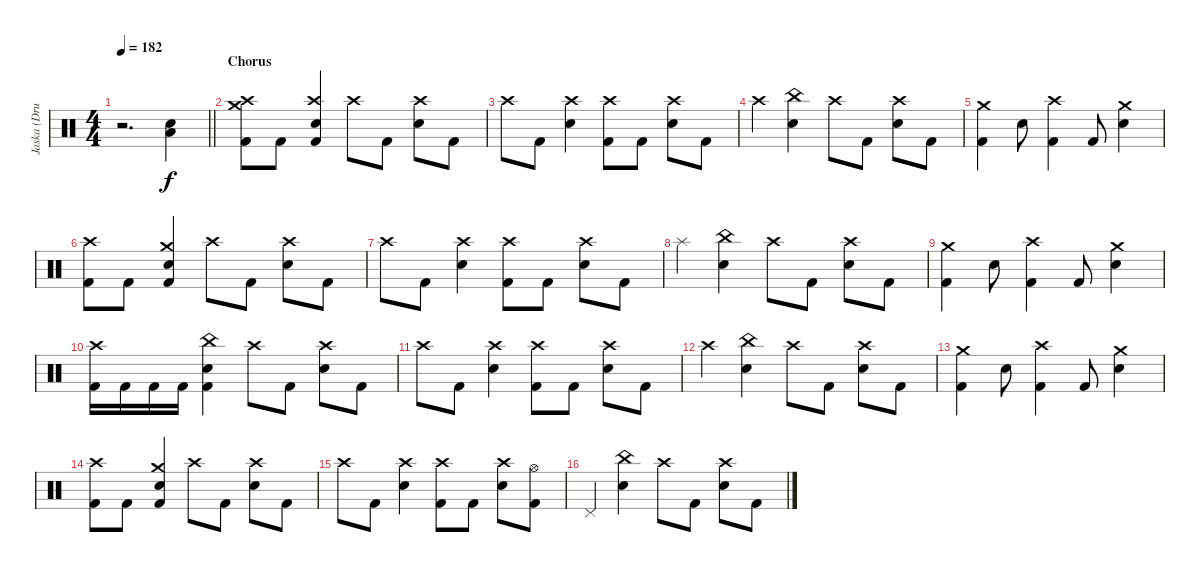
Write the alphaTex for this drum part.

\track ("Jaska (Drums)" "Jaska (Dru") {instrument percussion}
\staff {score}
\articulation defaults
\ts (4 4)
\tempo 182
\clef neutral
\barLineRight lightlight
\ks c
r.2{d dy f volume 0} ("Low Floor Tom (hit)" "Electric Snare (hit)").4{volume 16} |
\section ("" "Chorus")
("Crash medium (hit)" "Crash high (hit)" "Kick (hit) 2").8 "Kick (hit) 2".8 ("Crash high (hit)" "Electric Snare (hit)" "Kick (hit) 2").4 "Crash high (hit)".8 "Kick (hit) 2".8 ("Crash high (hit)" "Electric Snare (hit)").8 "Kick (hit) 2".8 |
"Crash high (hit)".8 "Kick (hit) 2".8 ("Crash high (hit)" "Electric Snare (hit)").4 ("Crash high (hit)" "Kick (hit) 2").8 "Kick (hit) 2".8 ("Crash high (hit)" "Electric Snare (hit)").8 "Kick (hit) 2".8 |
"Crash high (hit)".4 ("China (hit)" "Electric Snare (hit)").4 "Crash high (hit)".8 "Kick (hit) 2".8 ("Crash high (hit)" "Electric Snare (hit)").8 "Kick (hit) 2".8 |
("Crash medium (hit)" "Kick (hit) 2").4 "Electric Snare (hit)".8 ("Crash high (hit)" "Kick (hit) 2").4 "Kick (hit) 2".8 ("Crash medium (hit)" "Electric Snare (hit)").4 |
("Crash high (hit)" "Kick (hit) 2").8 "Kick (hit) 2".8 ("Crash medium (hit)" "Electric Snare (hit)" "Kick (hit) 2").4 "Crash high (hit)".8 "Kick (hit) 2".8 ("Crash high (hit)" "Electric Snare (hit)").8 "Kick (hit) 2".8 |
"Crash high (hit)".8 "Kick (hit) 2".8 ("Crash high (hit)" "Electric Snare (hit)").4 ("Crash high (hit)" "Kick (hit) 2").8 "Kick (hit) 2".8 ("Crash high (hit)" "Electric Snare (hit)").8 "Kick (hit) 2".8 |
"Splash (hit)".4 ("China (hit)" "Electric Snare (hit)").4 "Crash high (hit)".8 "Kick (hit) 2".8 ("Crash high (hit)" "Electric Snare (hit)").8 "Kick (hit) 2".8 |
("Crash medium (hit)" "Kick (hit) 2").4 "Electric Snare (hit)".8 ("Crash high (hit)" "Kick (hit) 2").4 "Kick (hit) 2".8 ("Crash medium (hit)" "Electric Snare (hit)").4 |
("Crash high (hit)" "Kick (hit) 2").16 "Kick (hit) 2".16 "Kick (hit) 2".16 "Kick (hit) 2".16 ("China (hit)" "Electric Snare (hit)" "Kick (hit) 2").4 "Crash high (hit)".8 "Kick (hit) 2".8 ("Crash high (hit)" "Electric Snare (hit)").8 "Kick (hit) 2".8 |
"Crash high (hit)".8 "Kick (hit) 2".8 ("Crash high (hit)" "Electric Snare (hit)").4 ("Crash high (hit)" "Kick (hit) 2").8 "Kick (hit) 2".8 ("Crash high (hit)" "Electric Snare (hit)").8 "Kick (hit) 2".8 |
"Crash high (hit)".4 ("China (hit)" "Electric Snare (hit)").4 "Crash high (hit)".8 "Kick (hit) 2".8 ("Crash high (hit)" "Electric Snare (hit)").8 "Kick (hit) 2".8 |
("Crash medium (hit)" "Kick (hit) 2").4 "Electric Snare (hit)".8 ("Crash high (hit)" "Kick (hit) 2").4 "Kick (hit) 2".8 ("Crash medium (hit)" "Electric Snare (hit)").4 |
("Crash high (hit)" "Kick (hit) 2").8 "Kick (hit) 2".8 ("Crash medium (hit)" "Electric Snare (hit)" "Kick (hit) 2").4 "Crash high (hit)".8 "Kick (hit) 2".8 ("Crash high (hit)" "Electric Snare (hit)").8 "Kick (hit) 2".8 |
"Crash high (hit)".8 "Kick (hit) 2".8 ("Crash high (hit)" "Electric Snare (hit)").4 ("Crash high (hit)" "Kick (hit) 2").8 "Kick (hit) 2".8 ("Crash high (hit)" "Electric Snare (hit)").8 ("Hi-Hat (open)" "Kick (hit) 2").8 |
"Pedal Hi-Hat (hit)".4 ("China (hit)" "Electric Snare (hit)").4 "Crash high (hit)".8 "Kick (hit) 2".8 ("Crash high (hit)" "Electric Snare (hit)").8 "Kick (hit) 2".8
